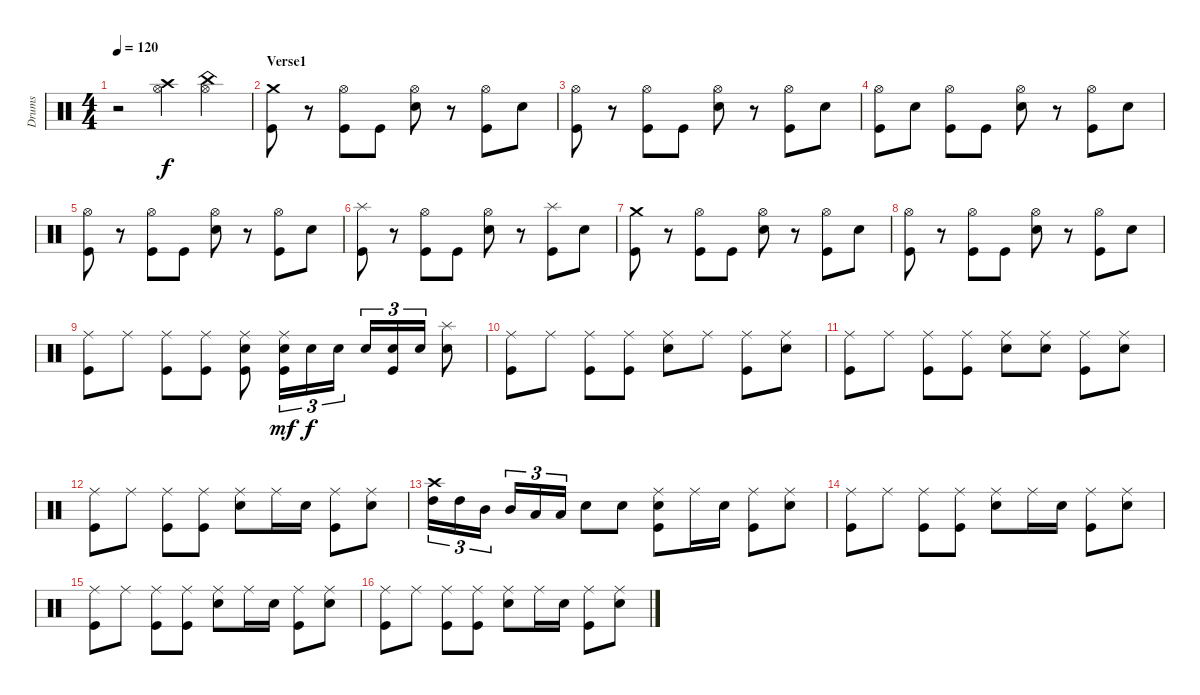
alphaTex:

\track ("Drums" "Drums") {instrument percussion}
\staff {score}
\articulation defaults
\ts (4 4)
\tempo 120
\clef neutral
\ks c
r.2{dy f} ("Hi-Hat (open)" "Crash high (hit)").4 ("China (hit)" "Hi-Hat (open)").4 |
\section ("" "Verse1")
("Crash medium (hit)" "Kick (hit)").8 r.8 ("Hi-Hat (open)" "Kick (hit)").8 "Kick (hit)".8 ("Hi-Hat (open)" "Snare (hit) 2").8 r.8 ("Hi-Hat (open)" "Kick (hit)").8 "Snare (hit) 2".8 |
("Hi-Hat (open)" "Kick (hit)").8 r.8 ("Hi-Hat (open)" "Kick (hit)").8 "Kick (hit)".8 ("Hi-Hat (open)" "Snare (hit) 2").8 r.8 ("Hi-Hat (open)" "Kick (hit)").8 "Snare (hit) 2".8 |
("Hi-Hat (open)" "Kick (hit)").8 "Snare (hit) 2".8 ("Hi-Hat (open)" "Kick (hit)").8 "Kick (hit)".8 ("Hi-Hat (open)" "Snare (hit) 2").8 r.8 ("Hi-Hat (open)" "Kick (hit)").8 "Snare (hit) 2".8 |
("Hi-Hat (open)" "Kick (hit)").8 r.8 ("Hi-Hat (open)" "Kick (hit)").8 "Kick (hit)".8 ("Hi-Hat (open)" "Snare (hit) 2").8 r.8 ("Hi-Hat (open)" "Kick (hit)").8 "Snare (hit) 2".8 |
("Splash (hit)" "Kick (hit)").8 r.8 ("Hi-Hat (open)" "Kick (hit)").8 "Kick (hit)".8 ("Hi-Hat (open)" "Snare (hit) 2").8 r.8 ("Splash (hit)" "Kick (hit)").8 "Snare (hit) 2".8 |
("Crash medium (hit)" "Kick (hit)").8 r.8 ("Hi-Hat (open)" "Kick (hit)").8 "Kick (hit)".8 ("Hi-Hat (open)" "Snare (hit) 2").8 r.8 ("Hi-Hat (open)" "Kick (hit)").8 "Snare (hit) 2".8 |
("Hi-Hat (open)" "Kick (hit)").8 r.8 ("Hi-Hat (open)" "Kick (hit)").8 "Kick (hit)".8 ("Hi-Hat (open)" "Snare (hit) 2").8 r.8 ("Hi-Hat (open)" "Kick (hit)").8 "Snare (hit) 2".8 |
("Ride (middle)" "Kick (hit)").8 "Ride (middle)".8 ("Ride (middle)" "Kick (hit)").8 ("Ride (middle)" "Kick (hit)").8 ("Ride (middle)" "Snare (hit) 2" "Kick (hit)").8 ("Ride (middle)" "Snare (hit) 2" "Kick (hit)").16{tu (3 2) dy mf} "Snare (hit) 2".16{tu (3 2) dy f} "Snare (hit) 2".16{tu (3 2)} "Snare (hit) 2".16{tu (3 2)} ("Snare (hit) 2" "Kick (hit)").16{tu (3 2)} "Snare (hit) 2".16{tu (3 2)} ("Splash (hit)" "Snare (hit) 2").8 |
("Ride (middle)" "Kick (hit)").8 "Ride (middle)".8 ("Ride (middle)" "Kick (hit)").8 ("Ride (middle)" "Kick (hit)").8 ("Ride (middle)" "Snare (hit) 2").8 "Ride (middle)".8 ("Ride (middle)" "Kick (hit)").8 ("Ride (middle)" "Snare (hit) 2").8 |
("Ride (middle)" "Kick (hit)").8 "Ride (middle)".8 ("Ride (middle)" "Kick (hit)").8 ("Ride (middle)" "Kick (hit)").8 ("Ride (middle)" "Snare (hit) 2").8 ("Ride (middle)" "Snare (hit) 2").8 ("Ride (middle)" "Kick (hit)").8 ("Ride (middle)" "Snare (hit) 2").8 |
("Ride (middle)" "Kick (hit)").8 "Ride (middle)".8 ("Ride (middle)" "Kick (hit)").8 ("Ride (middle)" "Kick (hit)").8 ("Ride (middle)" "Snare (hit) 2").8 "Ride (middle)".16 "Snare (hit) 2".16 ("Ride (middle)" "Kick (hit)").8 ("Ride (middle)" "Snare (hit) 2").8 |
("Crash high (hit)" "High Tom (hit)").16{tu (3 2)} "High Tom (hit)".16{tu (3 2)} "Mid Tom (hit)".16{tu (3 2)} "Mid Tom (hit)".16{tu (3 2)} "Low Tom (hit)".16{tu (3 2)} "Low Tom (hit)".16{tu (3 2)} "Snare (hit) 2".8 "Snare (hit) 2".8 ("Ride (middle)" "Snare (hit) 2" "Kick (hit)").8 "Ride (middle)".16 "Snare (hit) 2".16 ("Ride (middle)" "Kick (hit)").8 ("Ride (middle)" "Snare (hit) 2").8 |
("Ride (middle)" "Kick (hit)").8 "Ride (middle)".8 ("Ride (middle)" "Kick (hit)").8 ("Ride (middle)" "Kick (hit)").8 ("Ride (middle)" "Snare (hit) 2").8 "Ride (middle)".16 "Snare (hit) 2".16 ("Ride (middle)" "Kick (hit)").8 ("Ride (middle)" "Snare (hit) 2").8 |
("Ride (middle)" "Kick (hit)").8 "Ride (middle)".8 ("Ride (middle)" "Kick (hit)").8 ("Ride (middle)" "Kick (hit)").8 ("Ride (middle)" "Snare (hit) 2").8 "Ride (middle)".16 "Snare (hit) 2".16 ("Ride (middle)" "Kick (hit)").8 ("Ride (middle)" "Snare (hit) 2").8 |
("Ride (middle)" "Kick (hit)").8 "Ride (middle)".8 ("Ride (middle)" "Kick (hit)").8 ("Ride (middle)" "Kick (hit)").8 ("Ride (middle)" "Snare (hit) 2").8 "Ride (middle)".16 "Snare (hit) 2".16 ("Ride (middle)" "Kick (hit)").8 ("Ride (middle)" "Snare (hit) 2").8
